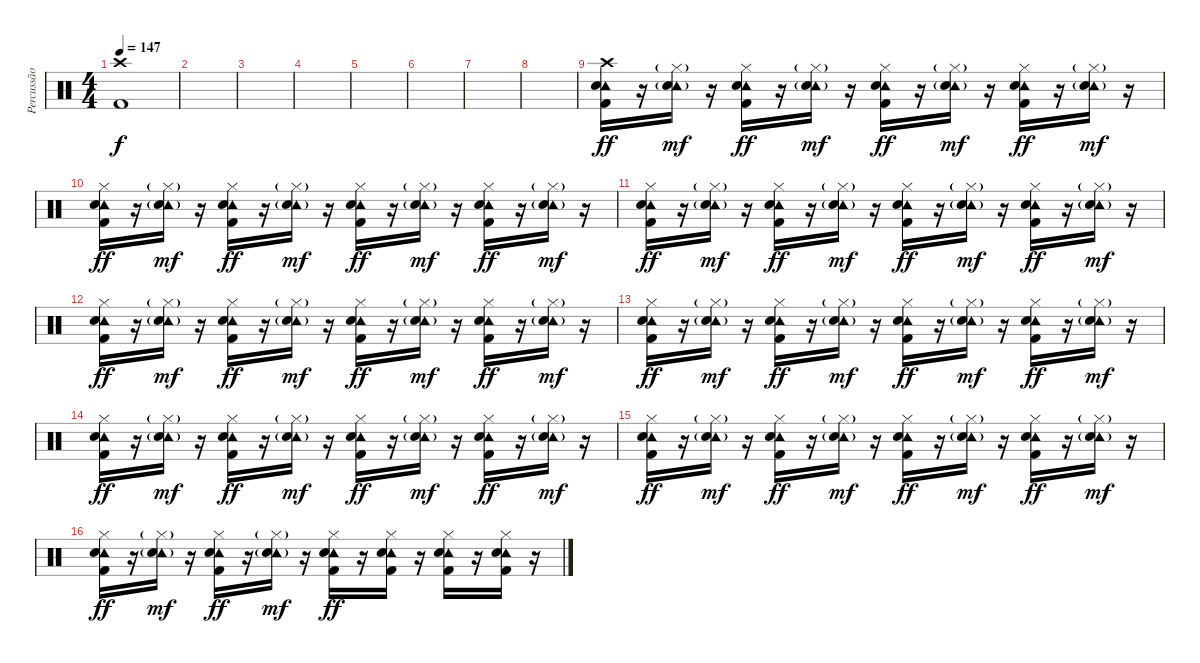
\track ("Percussão" "Percussão") {instrument percussion}
\staff {score}
\articulation defaults
\ts (4 4)
\tempo 147
\clef neutral
\ks c
("Crash high (hit)" "Kick (hit) 2").1{dy f} |
|
|
|
|
|
|
|
("Crash high (hit)" "Tambourine (hit)" "Snare (hit) 2" "Kick (hit) 2").16{dy ff volume 13} r.16 ("Hi-Hat (closed)"{g} "Tambourine (hit)" "Snare (hit) 2"{g}).16{dy mf} r.16 ("Hi-Hat (closed)" "Tambourine (hit)" "Snare (hit) 2" "Kick (hit) 2").16{dy ff} r.16 ("Hi-Hat (closed)"{g} "Tambourine (hit)" "Snare (hit) 2"{g}).16{dy mf} r.16 ("Hi-Hat (closed)" "Tambourine (hit)" "Snare (hit) 2" "Kick (hit) 2").16{dy ff} r.16 ("Hi-Hat (closed)"{g} "Tambourine (hit)" "Snare (hit) 2"{g}).16{dy mf} r.16 ("Hi-Hat (closed)" "Tambourine (hit)" "Snare (hit) 2" "Kick (hit) 2").16{dy ff} r.16 ("Hi-Hat (closed)"{g} "Tambourine (hit)" "Snare (hit) 2"{g}).16{dy mf} r.16 |
("Hi-Hat (closed)" "Tambourine (hit)" "Snare (hit) 2" "Kick (hit) 2").16{dy ff} r.16 ("Hi-Hat (closed)"{g} "Tambourine (hit)" "Snare (hit) 2"{g}).16{dy mf} r.16 ("Hi-Hat (closed)" "Tambourine (hit)" "Snare (hit) 2" "Kick (hit) 2").16{dy ff} r.16 ("Hi-Hat (closed)"{g} "Tambourine (hit)" "Snare (hit) 2"{g}).16{dy mf} r.16 ("Hi-Hat (closed)" "Tambourine (hit)" "Snare (hit) 2" "Kick (hit) 2").16{dy ff} r.16 ("Hi-Hat (closed)"{g} "Tambourine (hit)" "Snare (hit) 2"{g}).16{dy mf} r.16 ("Hi-Hat (closed)" "Tambourine (hit)" "Snare (hit) 2" "Kick (hit) 2").16{dy ff} r.16 ("Hi-Hat (closed)"{g} "Tambourine (hit)" "Snare (hit) 2"{g}).16{dy mf} r.16 |
("Hi-Hat (closed)" "Tambourine (hit)" "Snare (hit) 2" "Kick (hit) 2").16{dy ff} r.16 ("Hi-Hat (closed)"{g} "Tambourine (hit)" "Snare (hit) 2"{g}).16{dy mf} r.16 ("Hi-Hat (closed)" "Tambourine (hit)" "Snare (hit) 2" "Kick (hit) 2").16{dy ff} r.16 ("Hi-Hat (closed)"{g} "Tambourine (hit)" "Snare (hit) 2"{g}).16{dy mf} r.16 ("Hi-Hat (closed)" "Tambourine (hit)" "Snare (hit) 2" "Kick (hit) 2").16{dy ff} r.16 ("Hi-Hat (closed)"{g} "Tambourine (hit)" "Snare (hit) 2"{g}).16{dy mf} r.16 ("Hi-Hat (closed)" "Tambourine (hit)" "Snare (hit) 2" "Kick (hit) 2").16{dy ff} r.16 ("Hi-Hat (closed)"{g} "Tambourine (hit)" "Snare (hit) 2"{g}).16{dy mf} r.16 |
("Hi-Hat (closed)" "Tambourine (hit)" "Snare (hit) 2" "Kick (hit) 2").16{dy ff} r.16 ("Hi-Hat (closed)"{g} "Tambourine (hit)" "Snare (hit) 2"{g}).16{dy mf} r.16 ("Hi-Hat (closed)" "Tambourine (hit)" "Snare (hit) 2" "Kick (hit) 2").16{dy ff} r.16 ("Hi-Hat (closed)"{g} "Tambourine (hit)" "Snare (hit) 2"{g}).16{dy mf} r.16 ("Hi-Hat (closed)" "Tambourine (hit)" "Snare (hit) 2" "Kick (hit) 2").16{dy ff} r.16 ("Hi-Hat (closed)"{g} "Tambourine (hit)" "Snare (hit) 2"{g}).16{dy mf} r.16 ("Hi-Hat (closed)" "Tambourine (hit)" "Snare (hit) 2" "Kick (hit) 2").16{dy ff} r.16 ("Hi-Hat (closed)"{g} "Tambourine (hit)" "Snare (hit) 2"{g}).16{dy mf} r.16 |
("Hi-Hat (closed)" "Tambourine (hit)" "Snare (hit) 2" "Kick (hit) 2").16{dy ff} r.16 ("Hi-Hat (closed)"{g} "Tambourine (hit)" "Snare (hit) 2"{g}).16{dy mf} r.16 ("Hi-Hat (closed)" "Tambourine (hit)" "Snare (hit) 2" "Kick (hit) 2").16{dy ff} r.16 ("Hi-Hat (closed)"{g} "Tambourine (hit)" "Snare (hit) 2"{g}).16{dy mf} r.16 ("Hi-Hat (closed)" "Tambourine (hit)" "Snare (hit) 2" "Kick (hit) 2").16{dy ff} r.16 ("Hi-Hat (closed)"{g} "Tambourine (hit)" "Snare (hit) 2"{g}).16{dy mf} r.16 ("Hi-Hat (closed)" "Tambourine (hit)" "Snare (hit) 2" "Kick (hit) 2").16{dy ff} r.16 ("Hi-Hat (closed)"{g} "Tambourine (hit)" "Snare (hit) 2"{g}).16{dy mf} r.16 |
("Hi-Hat (closed)" "Tambourine (hit)" "Snare (hit) 2" "Kick (hit) 2").16{dy ff} r.16 ("Hi-Hat (closed)"{g} "Tambourine (hit)" "Snare (hit) 2"{g}).16{dy mf} r.16 ("Hi-Hat (closed)" "Tambourine (hit)" "Snare (hit) 2" "Kick (hit) 2").16{dy ff} r.16 ("Hi-Hat (closed)"{g} "Tambourine (hit)" "Snare (hit) 2"{g}).16{dy mf} r.16 ("Hi-Hat (closed)" "Tambourine (hit)" "Snare (hit) 2" "Kick (hit) 2").16{dy ff} r.16 ("Hi-Hat (closed)"{g} "Tambourine (hit)" "Snare (hit) 2"{g}).16{dy mf} r.16 ("Hi-Hat (closed)" "Tambourine (hit)" "Snare (hit) 2" "Kick (hit) 2").16{dy ff} r.16 ("Hi-Hat (closed)"{g} "Tambourine (hit)" "Snare (hit) 2"{g}).16{dy mf} r.16 |
("Hi-Hat (closed)" "Tambourine (hit)" "Snare (hit) 2" "Kick (hit) 2").16{dy ff} r.16 ("Hi-Hat (closed)"{g} "Tambourine (hit)" "Snare (hit) 2"{g}).16{dy mf} r.16 ("Hi-Hat (closed)" "Tambourine (hit)" "Snare (hit) 2" "Kick (hit) 2").16{dy ff} r.16 ("Hi-Hat (closed)"{g} "Tambourine (hit)" "Snare (hit) 2"{g}).16{dy mf} r.16 ("Hi-Hat (closed)" "Tambourine (hit)" "Snare (hit) 2" "Kick (hit) 2").16{dy ff} r.16 ("Hi-Hat (closed)"{g} "Tambourine (hit)" "Snare (hit) 2"{g}).16{dy mf} r.16 ("Hi-Hat (closed)" "Tambourine (hit)" "Snare (hit) 2" "Kick (hit) 2").16{dy ff} r.16 ("Hi-Hat (closed)"{g} "Tambourine (hit)" "Snare (hit) 2"{g}).16{dy mf} r.16 |
("Hi-Hat (closed)" "Tambourine (hit)" "Snare (hit) 2" "Kick (hit) 2").16{dy ff} r.16 ("Hi-Hat (closed)"{g} "Tambourine (hit)" "Snare (hit) 2"{g}).16{dy mf} r.16 ("Hi-Hat (closed)" "Tambourine (hit)" "Snare (hit) 2" "Kick (hit) 2").16{dy ff} r.16 ("Hi-Hat (closed)"{g} "Tambourine (hit)" "Snare (hit) 2"{g}).16{dy mf} r.16 ("Hi-Hat (closed)" "Tambourine (hit)" "Snare (hit) 2" "Kick (hit) 2").16{dy ff} r.16 ("Hi-Hat (closed)" "Tambourine (hit)" "Snare (hit) 2" "Kick (hit) 2").16 r.16 ("Hi-Hat (closed)" "Tambourine (hit)" "Snare (hit) 2" "Kick (hit) 2").16 r.16 ("Hi-Hat (closed)" "Tambourine (hit)" "Snare (hit) 2" "Kick (hit) 2").16 r.16
